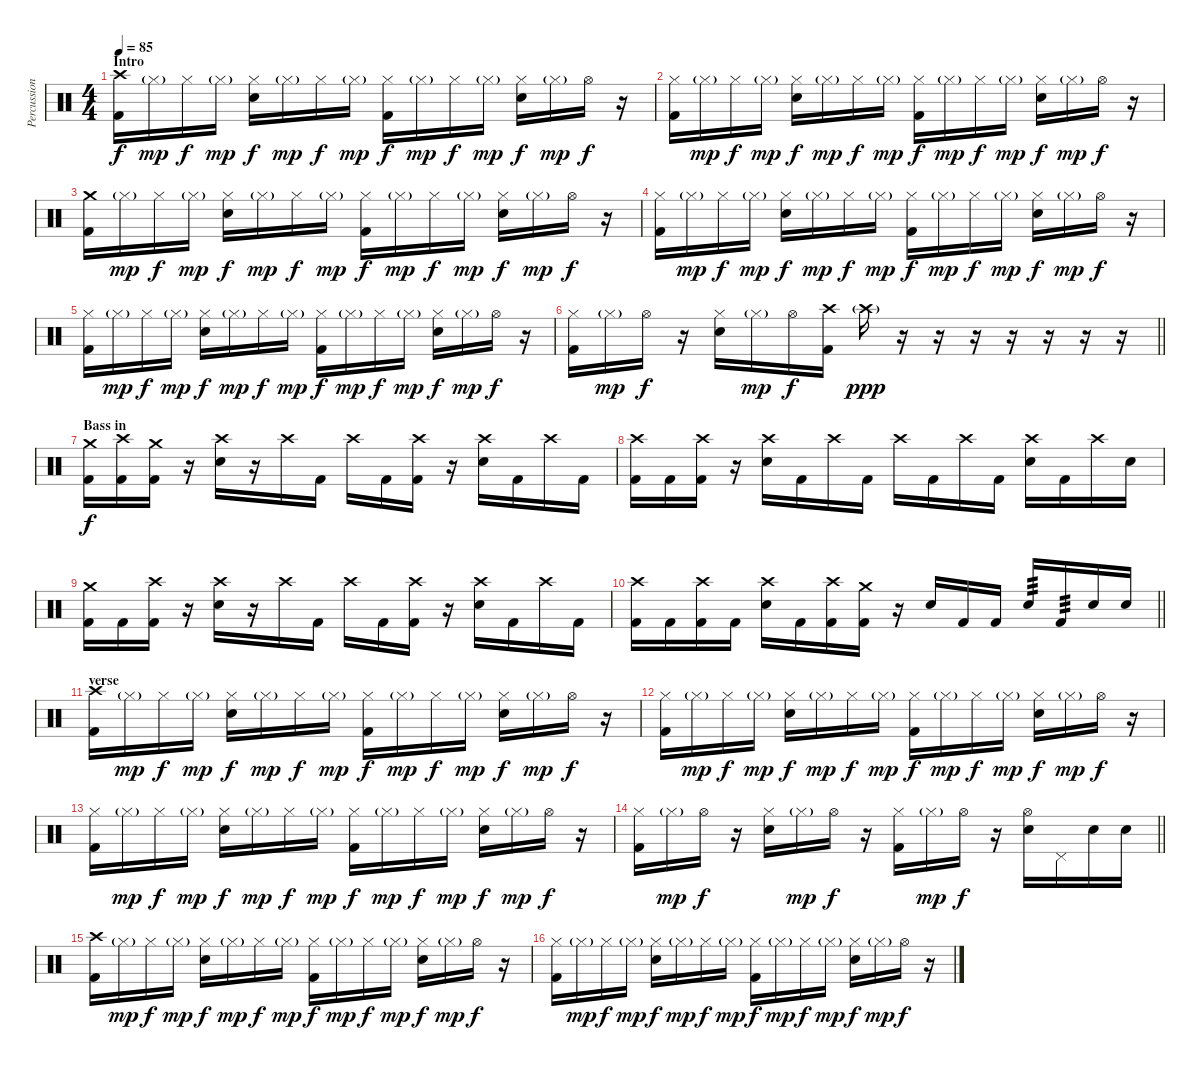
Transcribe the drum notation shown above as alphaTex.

\track ("Percussion" "Percussion") {instrument percussion}
\staff {score}
\articulation defaults
\ts (4 4)
\section ("" "Intro")
\tempo 85
\clef neutral
\ks c
("Crash high (hit)" "Kick (hit) 2").16{dy f} "Hi-Hat (closed)"{g}.16{dy mp} "Hi-Hat (closed)".16{dy f} "Hi-Hat (closed)"{g}.16{dy mp} ("Hi-Hat (closed)" "Snare (hit) 2").16{dy f} "Hi-Hat (closed)"{g}.16{dy mp} "Hi-Hat (closed)".16{dy f} "Hi-Hat (closed)"{g}.16{dy mp} ("Hi-Hat (closed)" "Kick (hit) 2").16{dy f} "Hi-Hat (closed)"{g}.16{dy mp} "Hi-Hat (closed)".16{dy f} "Hi-Hat (closed)"{g}.16{dy mp} ("Hi-Hat (closed)" "Snare (hit) 2").16{dy f} "Hi-Hat (closed)"{g}.16{dy mp} "Hi-Hat (open)".16{dy f} r.16 |
("Hi-Hat (closed)" "Kick (hit) 2").16 "Hi-Hat (closed)"{g}.16{dy mp} "Hi-Hat (closed)".16{dy f} "Hi-Hat (closed)"{g}.16{dy mp} ("Hi-Hat (closed)" "Snare (hit) 2").16{dy f} "Hi-Hat (closed)"{g}.16{dy mp} "Hi-Hat (closed)".16{dy f} "Hi-Hat (closed)"{g}.16{dy mp} ("Hi-Hat (closed)" "Kick (hit) 2").16{dy f} "Hi-Hat (closed)"{g}.16{dy mp} "Hi-Hat (closed)".16{dy f} "Hi-Hat (closed)"{g}.16{dy mp} ("Hi-Hat (closed)" "Snare (hit) 2").16{dy f} "Hi-Hat (closed)"{g}.16{dy mp} "Hi-Hat (open)".16{dy f} r.16 |
("Crash medium (hit)" "Kick (hit) 2").16 "Hi-Hat (closed)"{g}.16{dy mp} "Hi-Hat (closed)".16{dy f} "Hi-Hat (closed)"{g}.16{dy mp} ("Hi-Hat (closed)" "Snare (hit) 2").16{dy f} "Hi-Hat (closed)"{g}.16{dy mp} "Hi-Hat (closed)".16{dy f} "Hi-Hat (closed)"{g}.16{dy mp} ("Hi-Hat (closed)" "Kick (hit) 2").16{dy f} "Hi-Hat (closed)"{g}.16{dy mp} "Hi-Hat (closed)".16{dy f} "Hi-Hat (closed)"{g}.16{dy mp} ("Hi-Hat (closed)" "Snare (hit) 2").16{dy f} "Hi-Hat (closed)"{g}.16{dy mp} "Hi-Hat (open)".16{dy f} r.16 |
("Hi-Hat (closed)" "Kick (hit) 2").16 "Hi-Hat (closed)"{g}.16{dy mp} "Hi-Hat (closed)".16{dy f} "Hi-Hat (closed)"{g}.16{dy mp} ("Hi-Hat (closed)" "Snare (hit) 2").16{dy f} "Hi-Hat (closed)"{g}.16{dy mp} "Hi-Hat (closed)".16{dy f} "Hi-Hat (closed)"{g}.16{dy mp} ("Hi-Hat (closed)" "Kick (hit) 2").16{dy f} "Hi-Hat (closed)"{g}.16{dy mp} "Hi-Hat (closed)".16{dy f} "Hi-Hat (closed)"{g}.16{dy mp} ("Hi-Hat (closed)" "Snare (hit) 2").16{dy f} "Hi-Hat (closed)"{g}.16{dy mp} "Hi-Hat (open)".16{dy f} r.16 |
("Hi-Hat (closed)" "Kick (hit) 2").16 "Hi-Hat (closed)"{g}.16{dy mp} "Hi-Hat (closed)".16{dy f} "Hi-Hat (closed)"{g}.16{dy mp} ("Hi-Hat (closed)" "Snare (hit) 2").16{dy f} "Hi-Hat (closed)"{g}.16{dy mp} "Hi-Hat (closed)".16{dy f} "Hi-Hat (closed)"{g}.16{dy mp} ("Hi-Hat (closed)" "Kick (hit) 2").16{dy f} "Hi-Hat (closed)"{g}.16{dy mp} "Hi-Hat (closed)".16{dy f} "Hi-Hat (closed)"{g}.16{dy mp} ("Hi-Hat (closed)" "Snare (hit) 2").16{dy f} "Hi-Hat (closed)"{g}.16{dy mp} "Hi-Hat (open)".16{dy f} r.16 |
\barLineRight lightlight
("Hi-Hat (closed)" "Kick (hit) 2").16 "Hi-Hat (closed)"{g}.16{dy mp} "Hi-Hat (open)".16{dy f} r.16 ("Hi-Hat (closed)" "Snare (hit) 2").16 "Hi-Hat (closed)"{g}.16{dy mp} "Hi-Hat (open)".16{dy f} ("Crash high (hit)" "Kick (hit) 2").16 "Crash high (hit)"{g}.16{dy ppp} r.16 r.16 r.16 r.16 r.16 r.16 r.16 |
\section ("" "Bass in")
("Crash medium (hit)" "Kick (hit) 2").16{dy f} ("Crash high (hit)" "Kick (hit) 2").16 ("Crash medium (hit)" "Kick (hit) 2").16 r.16 ("Crash high (hit)" "Snare (hit) 2").16 r.16 "Crash high (hit)".16 "Kick (hit) 2".16 "Crash high (hit)".16 "Kick (hit) 2".16 ("Crash high (hit)" "Kick (hit) 2").16 r.16 ("Crash high (hit)" "Snare (hit) 2").16 "Kick (hit) 2".16 "Crash high (hit)".16 "Kick (hit) 2".16 |
("Crash high (hit)" "Kick (hit) 2").16 "Kick (hit) 2".16 ("Crash high (hit)" "Kick (hit) 2").16 r.16 ("Crash high (hit)" "Snare (hit) 2").16 "Kick (hit) 2".16 "Crash high (hit)".16 "Kick (hit) 2".16 "Crash high (hit)".16 "Kick (hit) 2".16 "Crash high (hit)".16 "Kick (hit) 2".16 ("Crash high (hit)" "Snare (hit) 2").16 "Kick (hit) 2".16 "Crash high (hit)".16 "Snare (hit) 2".16 |
("Crash medium (hit)" "Kick (hit) 2").16 "Kick (hit) 2".16 ("Crash high (hit)" "Kick (hit) 2").16 r.16 ("Crash high (hit)" "Snare (hit) 2").16 r.16 "Crash high (hit)".16 "Kick (hit) 2".16 "Crash high (hit)".16 "Kick (hit) 2".16 ("Crash high (hit)" "Kick (hit) 2").16 r.16 ("Crash high (hit)" "Snare (hit) 2").16 "Kick (hit) 2".16 "Crash high (hit)".16 "Kick (hit) 2".16 |
\barLineRight lightlight
("Crash high (hit)" "Kick (hit) 2").16 "Kick (hit) 2".16 ("Crash high (hit)" "Kick (hit) 2").16 "Kick (hit) 2".16 ("Crash high (hit)" "Snare (hit) 2").16 "Kick (hit) 2".16 ("Crash high (hit)" "Kick (hit) 2").16 ("Crash medium (hit)" "Kick (hit) 2").16 r.16 "Snare (hit) 2".16 "Kick (hit) 2".16 "Kick (hit) 2".16 "Snare (hit) 2".16{tp 3} "Kick (hit) 2".16{tp 3} "Snare (hit) 2".16 "Snare (hit) 2".16 |
\section ("" "verse")
("Crash high (hit)" "Kick (hit) 2").16 "Hi-Hat (closed)"{g}.16{dy mp} "Hi-Hat (closed)".16{dy f} "Hi-Hat (closed)"{g}.16{dy mp} ("Hi-Hat (closed)" "Snare (hit) 2").16{dy f} "Hi-Hat (closed)"{g}.16{dy mp} "Hi-Hat (closed)".16{dy f} "Hi-Hat (closed)"{g}.16{dy mp} ("Hi-Hat (closed)" "Kick (hit) 2").16{dy f} "Hi-Hat (closed)"{g}.16{dy mp} "Hi-Hat (closed)".16{dy f} "Hi-Hat (closed)"{g}.16{dy mp} ("Hi-Hat (closed)" "Snare (hit) 2").16{dy f} "Hi-Hat (closed)"{g}.16{dy mp} "Hi-Hat (open)".16{dy f} r.16 |
("Hi-Hat (closed)" "Kick (hit) 2").16 "Hi-Hat (closed)"{g}.16{dy mp} "Hi-Hat (closed)".16{dy f} "Hi-Hat (closed)"{g}.16{dy mp} ("Hi-Hat (closed)" "Snare (hit) 2").16{dy f} "Hi-Hat (closed)"{g}.16{dy mp} "Hi-Hat (closed)".16{dy f} "Hi-Hat (closed)"{g}.16{dy mp} ("Hi-Hat (closed)" "Kick (hit) 2").16{dy f} "Hi-Hat (closed)"{g}.16{dy mp} "Hi-Hat (closed)".16{dy f} "Hi-Hat (closed)"{g}.16{dy mp} ("Hi-Hat (closed)" "Snare (hit) 2").16{dy f} "Hi-Hat (closed)"{g}.16{dy mp} "Hi-Hat (open)".16{dy f} r.16 |
("Hi-Hat (closed)" "Kick (hit) 2").16 "Hi-Hat (closed)"{g}.16{dy mp} "Hi-Hat (closed)".16{dy f} "Hi-Hat (closed)"{g}.16{dy mp} ("Hi-Hat (closed)" "Snare (hit) 2").16{dy f} "Hi-Hat (closed)"{g}.16{dy mp} "Hi-Hat (closed)".16{dy f} "Hi-Hat (closed)"{g}.16{dy mp} ("Hi-Hat (closed)" "Kick (hit) 2").16{dy f} "Hi-Hat (closed)"{g}.16{dy mp} "Hi-Hat (closed)".16{dy f} "Hi-Hat (closed)"{g}.16{dy mp} ("Hi-Hat (closed)" "Snare (hit) 2").16{dy f} "Hi-Hat (closed)"{g}.16{dy mp} "Hi-Hat (open)".16{dy f} r.16 |
\barLineRight lightlight
("Hi-Hat (closed)" "Kick (hit) 2").16 "Hi-Hat (closed)"{g}.16{dy mp} "Hi-Hat (open)".16{dy f} r.16 ("Hi-Hat (closed)" "Snare (hit) 2").16 "Hi-Hat (closed)"{g}.16{dy mp} "Hi-Hat (open)".16{dy f} r.16 ("Hi-Hat (closed)" "Kick (hit) 2").16 "Hi-Hat (closed)"{g}.16{dy mp} "Hi-Hat (open)".16{dy f} r.16 ("Hi-Hat (open)" "Snare (hit) 2").16 "Pedal Hi-Hat (hit)".16 "Snare (hit) 2".16 "Snare (hit) 2".16 |
("Crash high (hit)" "Kick (hit) 2").16 "Hi-Hat (closed)"{g}.16{dy mp} "Hi-Hat (closed)".16{dy f} "Hi-Hat (closed)"{g}.16{dy mp} ("Hi-Hat (closed)" "Snare (hit) 2").16{dy f} "Hi-Hat (closed)"{g}.16{dy mp} "Hi-Hat (closed)".16{dy f} "Hi-Hat (closed)"{g}.16{dy mp} ("Hi-Hat (closed)" "Kick (hit) 2").16{dy f} "Hi-Hat (closed)"{g}.16{dy mp} "Hi-Hat (closed)".16{dy f} "Hi-Hat (closed)"{g}.16{dy mp} ("Hi-Hat (closed)" "Snare (hit) 2").16{dy f} "Hi-Hat (closed)"{g}.16{dy mp} "Hi-Hat (open)".16{dy f} r.16 |
("Hi-Hat (closed)" "Kick (hit) 2").16 "Hi-Hat (closed)"{g}.16{dy mp} "Hi-Hat (closed)".16{dy f} "Hi-Hat (closed)"{g}.16{dy mp} ("Hi-Hat (closed)" "Snare (hit) 2").16{dy f} "Hi-Hat (closed)"{g}.16{dy mp} "Hi-Hat (closed)".16{dy f} "Hi-Hat (closed)"{g}.16{dy mp} ("Hi-Hat (closed)" "Kick (hit) 2").16{dy f} "Hi-Hat (closed)"{g}.16{dy mp} "Hi-Hat (closed)".16{dy f} "Hi-Hat (closed)"{g}.16{dy mp} ("Hi-Hat (closed)" "Snare (hit) 2").16{dy f} "Hi-Hat (closed)"{g}.16{dy mp} "Hi-Hat (open)".16{dy f} r.16
